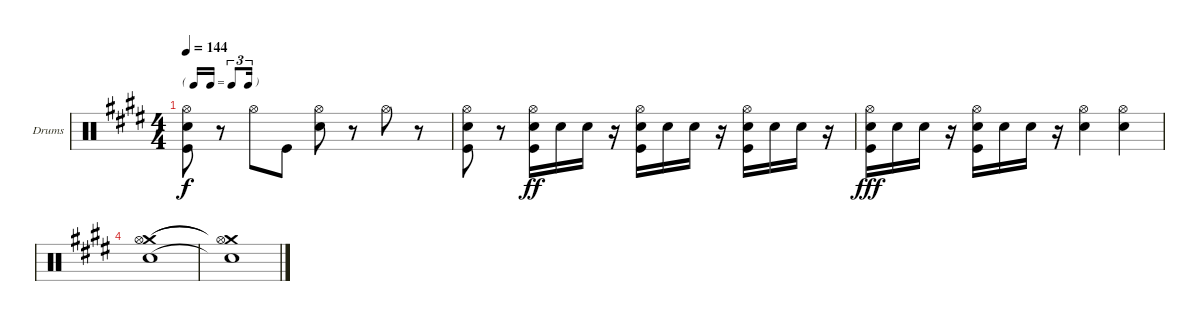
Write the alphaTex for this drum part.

\bracketExtendMode nobrackets
\firstSystemTrackNameOrientation horizontal
\otherSystemsTrackNameOrientation horizontal
\defaultBarNumberDisplay FirstOfSystem
\track ("Drumkit" "Drums") {instrument percussion}
\staff {score}
\articulation defaults
\ts (4 4)
\tf triplet16th
\tempo 144
\clef neutral
\ks c#minor
("Hi-Hat (open)" "Snare (hit) 2" "Kick (hit)").8{dy f} r.8 "Hi-Hat (open)".8 "Kick (hit)".8 ("Snare (hit) 2" "Hi-Hat (open)").8 r.8 "Hi-Hat (open)".8 r.8 |
("Hi-Hat (open)" "Snare (hit) 2" "Kick (hit)").8 r.8 ("Snare (hit) 2" "Hi-Hat (open)" "Kick (hit)").16{dy ff} "Snare (hit) 2".16 "Snare (hit) 2".16 r.16 ("Snare (hit) 2" "Hi-Hat (open)" "Kick (hit)").16 "Snare (hit) 2".16 "Snare (hit) 2".16 r.16 ("Snare (hit) 2" "Hi-Hat (open)" "Kick (hit)").16 "Snare (hit) 2".16 "Snare (hit) 2".16 r.16 |
("Snare (hit) 2" "Hi-Hat (open)" "Kick (hit)").16{dy fff} "Snare (hit) 2".16 "Snare (hit) 2".16 r.16 ("Snare (hit) 2" "Hi-Hat (open)" "Kick (hit)").16 "Snare (hit) 2".16 "Snare (hit) 2".16 r.16 ("Snare (hit) 2" "Hi-Hat (open)").4 ("Snare (hit) 2" "Hi-Hat (open)").4 |
\ks e
("Snare (hit) 2" "Crash medium (hit)" "Hi-Hat (open)").1 |
\ks c#minor
("Snare (hit) 2"{t} "Crash medium (hit)"{t} "Hi-Hat (open)"{t}).1
